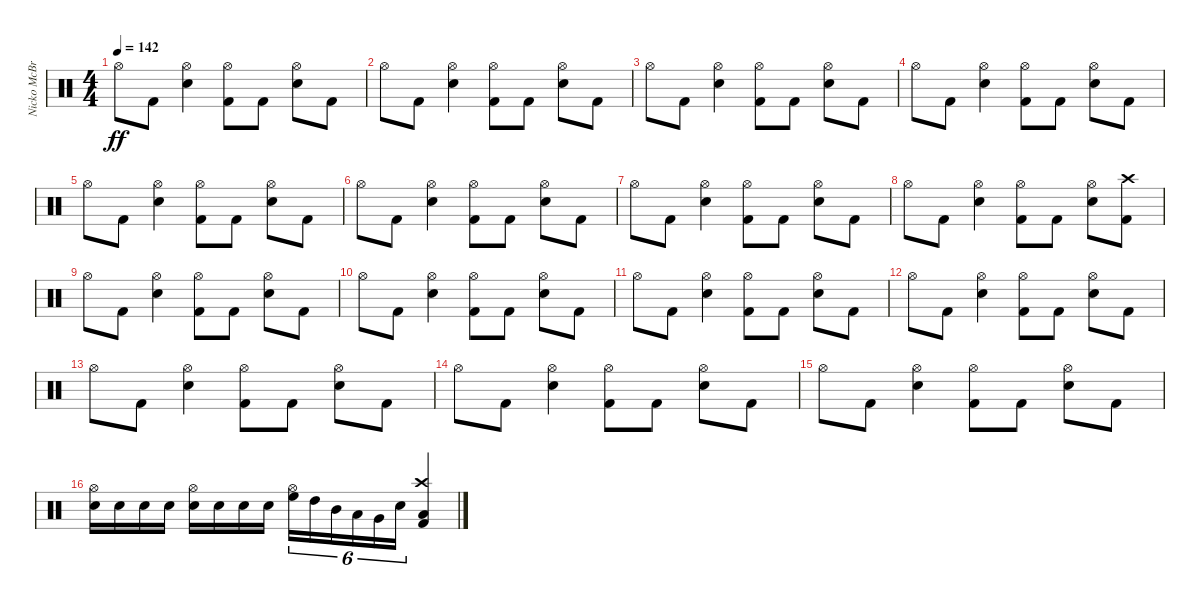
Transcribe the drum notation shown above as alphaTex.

\track ("Nicko McBrain" "Nicko McBr") {instrument percussion}
\staff {score}
\articulation defaults
\ts (4 4)
\tempo 142
\clef neutral
\ks c "Hi-Hat (open)".8{dy ff} "Kick (hit) 2".8
("Snare (hit) 2" "Hi-Hat (open)").4 ("Kick (hit) 2" "Hi-Hat (open)").8 "Kick (hit) 2".8 ("Snare (hit) 2" "Hi-Hat (open)").8 "Kick (hit) 2".8 |
"Hi-Hat (open)".8 "Kick (hit) 2".8 ("Snare (hit) 2" "Hi-Hat (open)").4 ("Kick (hit) 2" "Hi-Hat (open)").8 "Kick (hit) 2".8 ("Snare (hit) 2" "Hi-Hat (open)").8 "Kick (hit) 2".8 |
"Hi-Hat (open)".8 "Kick (hit) 2".8 ("Snare (hit) 2" "Hi-Hat (open)").4 ("Kick (hit) 2" "Hi-Hat (open)").8 "Kick (hit) 2".8 ("Snare (hit) 2" "Hi-Hat (open)").8 "Kick (hit) 2".8 |
"Hi-Hat (open)".8 "Kick (hit) 2".8 ("Snare (hit) 2" "Hi-Hat (open)").4 ("Kick (hit) 2" "Hi-Hat (open)").8 "Kick (hit) 2".8 ("Snare (hit) 2" "Hi-Hat (open)").8 "Kick (hit) 2".8 |
"Hi-Hat (open)".8 "Kick (hit) 2".8 ("Snare (hit) 2" "Hi-Hat (open)").4 ("Kick (hit) 2" "Hi-Hat (open)").8 "Kick (hit) 2".8 ("Snare (hit) 2" "Hi-Hat (open)").8 "Kick (hit) 2".8 |
"Hi-Hat (open)".8 "Kick (hit) 2".8 ("Snare (hit) 2" "Hi-Hat (open)").4 ("Kick (hit) 2" "Hi-Hat (open)").8 "Kick (hit) 2".8 ("Snare (hit) 2" "Hi-Hat (open)").8 "Kick (hit) 2".8 |
"Hi-Hat (open)".8 "Kick (hit) 2".8 ("Snare (hit) 2" "Hi-Hat (open)").4 ("Kick (hit) 2" "Hi-Hat (open)").8 "Kick (hit) 2".8 ("Snare (hit) 2" "Hi-Hat (open)").8 "Kick (hit) 2".8 |
"Hi-Hat (open)".8 "Kick (hit) 2".8 ("Snare (hit) 2" "Hi-Hat (open)").4 ("Kick (hit) 2" "Hi-Hat (open)").8 "Kick (hit) 2".8 ("Snare (hit) 2" "Hi-Hat (open)").8 ("Kick (hit) 2" "Crash high (hit)").8 |
"Hi-Hat (open)".8 "Kick (hit) 2".8 ("Snare (hit) 2" "Hi-Hat (open)").4 ("Kick (hit) 2" "Hi-Hat (open)").8 "Kick (hit) 2".8 ("Snare (hit) 2" "Hi-Hat (open)").8 "Kick (hit) 2".8 |
"Hi-Hat (open)".8 "Kick (hit) 2".8 ("Snare (hit) 2" "Hi-Hat (open)").4 ("Kick (hit) 2" "Hi-Hat (open)").8 "Kick (hit) 2".8 ("Snare (hit) 2" "Hi-Hat (open)").8 "Kick (hit) 2".8 |
"Hi-Hat (open)".8 "Kick (hit) 2".8 ("Snare (hit) 2" "Hi-Hat (open)").4 ("Kick (hit) 2" "Hi-Hat (open)").8 "Kick (hit) 2".8 ("Snare (hit) 2" "Hi-Hat (open)").8 "Kick (hit) 2".8 |
"Hi-Hat (open)".8 "Kick (hit) 2".8 ("Snare (hit) 2" "Hi-Hat (open)").4 ("Kick (hit) 2" "Hi-Hat (open)").8 "Kick (hit) 2".8 ("Snare (hit) 2" "Hi-Hat (open)").8 "Kick (hit) 2".8 |
"Hi-Hat (open)".8 "Kick (hit) 2".8 ("Snare (hit) 2" "Hi-Hat (open)").4 ("Kick (hit) 2" "Hi-Hat (open)").8 "Kick (hit) 2".8 ("Snare (hit) 2" "Hi-Hat (open)").8 "Kick (hit) 2".8 |
"Hi-Hat (open)".8 "Kick (hit) 2".8 ("Snare (hit) 2" "Hi-Hat (open)").4 ("Kick (hit) 2" "Hi-Hat (open)").8 "Kick (hit) 2".8 ("Snare (hit) 2" "Hi-Hat (open)").8 "Kick (hit) 2".8 |
"Hi-Hat (open)".8 "Kick (hit) 2".8 ("Snare (hit) 2" "Hi-Hat (open)").4 ("Kick (hit) 2" "Hi-Hat (open)").8 "Kick (hit) 2".8 ("Snare (hit) 2" "Hi-Hat (open)").8 "Kick (hit) 2".8 |
("Snare (hit) 2" "Hi-Hat (open)").16 "Snare (hit) 2".16 "Snare (hit) 2".16 "Snare (hit) 2".16 ("Snare (hit) 2" "Hi-Hat (open)").16 "Snare (hit) 2".16 "Snare (hit) 2".16 "Snare (hit) 2".16 ("Hi-Hat (open)" "High Floor Tom (hit)").16{tu (6 4)} "High Tom (hit)".16{tu (6 4)} "Mid Tom (hit)".16{tu (6 4)} "Low Tom (hit)".16{tu (6 4)} "Very Low Tom (hit)".16{tu (6 4)} "Electric Snare (hit)".16{tu (6 4)} ("Kick (hit) 2" "Low Tom (hit)" "Crash high (hit)").4
